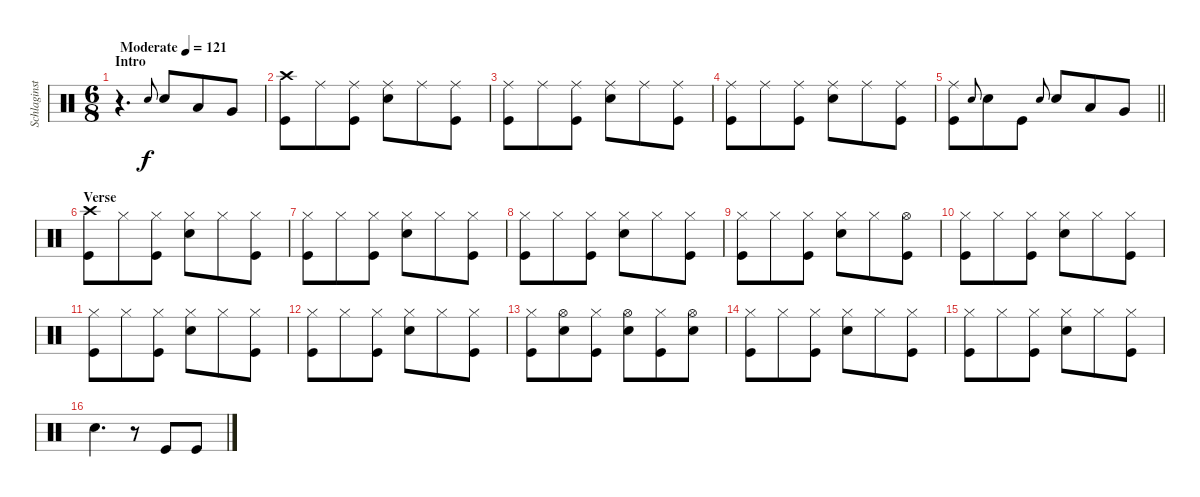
\track ("Schlaginstrumente - Auswahl" "Schlaginst") {instrument percussion}
\staff {score}
\articulation defaults
\ts (6 8)
\section ("" "Intro")
\tempo (121 "Moderate")
\clef neutral
\ks c
r.4{d dy f} "Snare (hit) 2".8{gr onbeat} "Snare (hit) 2".8 "Low Tom (hit)".8 "Very Low Tom (hit)".8 |
("Crash high (hit)" "Kick (hit)").8 "Ride (middle)".8 ("Ride (middle)" "Kick (hit)").8 ("Ride (middle)" "Snare (hit) 2").8 "Ride (middle)".8 ("Ride (middle)" "Kick (hit)").8 |
("Ride (middle)" "Kick (hit)").8 "Ride (middle)".8 ("Ride (middle)" "Kick (hit)").8 ("Ride (middle)" "Snare (hit) 2").8 "Ride (middle)".8 ("Ride (middle)" "Kick (hit)").8 |
("Ride (middle)" "Kick (hit)").8 "Ride (middle)".8 ("Ride (middle)" "Kick (hit)").8 ("Ride (middle)" "Snare (hit) 2").8 "Ride (middle)".8 ("Ride (middle)" "Kick (hit)").8 |
\barLineRight lightlight
("Ride (middle)" "Kick (hit)").8 "Snare (hit) 2".8{gr onbeat} "Snare (hit) 2".8 "Kick (hit)".8 "Snare (hit) 2".8{gr onbeat} "Snare (hit) 2".8 "Low Tom (hit)".8 "Very Low Tom (hit)".8 |
\section ("" "Verse")
("Crash high (hit)" "Kick (hit)").8 "Hi-Hat (closed)".8 ("Hi-Hat (closed)" "Kick (hit)").8 ("Hi-Hat (closed)" "Snare (hit) 2").8 "Hi-Hat (closed)".8 ("Hi-Hat (closed)" "Kick (hit)").8 |
("Hi-Hat (closed)" "Kick (hit)").8 "Hi-Hat (closed)".8 ("Hi-Hat (closed)" "Kick (hit)").8 ("Hi-Hat (closed)" "Snare (hit) 2").8 "Hi-Hat (closed)".8 ("Hi-Hat (closed)" "Kick (hit)").8 |
("Hi-Hat (closed)" "Kick (hit)").8 "Hi-Hat (closed)".8 ("Hi-Hat (closed)" "Kick (hit)").8 ("Hi-Hat (closed)" "Snare (hit) 2").8 "Hi-Hat (closed)".8 ("Hi-Hat (closed)" "Kick (hit)").8 |
("Hi-Hat (closed)" "Kick (hit)").8 "Hi-Hat (closed)".8 ("Hi-Hat (closed)" "Kick (hit)").8 ("Hi-Hat (closed)" "Snare (hit) 2").8 "Hi-Hat (closed)".8 ("Hi-Hat (open)" "Kick (hit)").8 |
("Hi-Hat (closed)" "Kick (hit)").8 "Hi-Hat (closed)".8 ("Hi-Hat (closed)" "Kick (hit)").8 ("Hi-Hat (closed)" "Snare (hit) 2").8 "Hi-Hat (closed)".8 ("Hi-Hat (closed)" "Kick (hit)").8 |
("Hi-Hat (closed)" "Kick (hit)").8 "Hi-Hat (closed)".8 ("Hi-Hat (closed)" "Kick (hit)").8 ("Hi-Hat (closed)" "Snare (hit) 2").8 "Hi-Hat (closed)".8 ("Hi-Hat (closed)" "Kick (hit)").8 |
("Hi-Hat (closed)" "Kick (hit)").8 "Hi-Hat (closed)".8 ("Hi-Hat (closed)" "Kick (hit)").8 ("Hi-Hat (closed)" "Snare (hit) 2").8 "Hi-Hat (closed)".8 ("Hi-Hat (closed)" "Kick (hit)").8 |
("Hi-Hat (closed)" "Kick (hit)").8 ("Hi-Hat (open)" "Snare (hit) 2").8 ("Hi-Hat (closed)" "Kick (hit)").8 ("Hi-Hat (open)" "Snare (hit) 2").8 ("Hi-Hat (closed)" "Kick (hit)").8 ("Hi-Hat (open)" "Snare (hit) 2").8 |
("Hi-Hat (closed)" "Kick (hit)").8 "Hi-Hat (closed)".8 ("Hi-Hat (closed)" "Kick (hit)").8 ("Hi-Hat (closed)" "Snare (hit) 2").8 "Hi-Hat (closed)".8 ("Hi-Hat (closed)" "Kick (hit)").8 |
("Hi-Hat (closed)" "Kick (hit)").8 "Hi-Hat (closed)".8 ("Hi-Hat (closed)" "Kick (hit)").8 ("Hi-Hat (closed)" "Snare (hit) 2").8 "Hi-Hat (closed)".8 ("Hi-Hat (closed)" "Kick (hit)").8 |
"Snare (hit) 2".4{d} r.8 "Kick (hit)".8 "Kick (hit)".8
